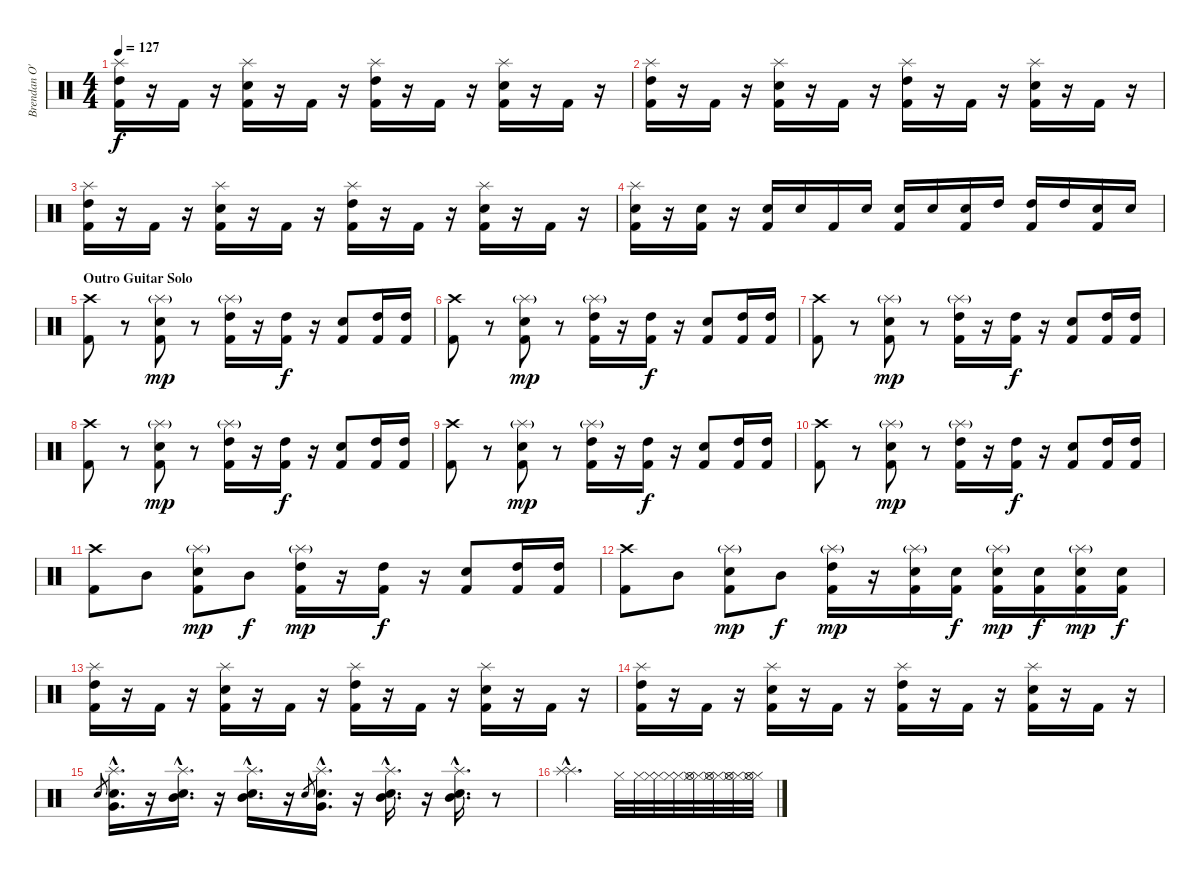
\track ("Brendan O'Neil" "Brendan O'") {instrument percussion}
\staff {score}
\articulation defaults
\ts (4 4)
\tempo 127
\clef neutral
\ks c
("Splash (hit)" "High Tom (hit)" "Kick (hit) 2").16{dy f} r.16 "Kick (hit) 2".16 r.16 ("Splash (hit)" "Snare (hit) 2" "Kick (hit) 2").16 r.16 "Kick (hit) 2".16 r.16 ("Splash (hit)" "High Tom (hit)" "Kick (hit) 2").16 r.16 "Kick (hit) 2".16 r.16 ("Splash (hit)" "Snare (hit) 2" "Kick (hit) 2").16 r.16 "Kick (hit) 2".16 r.16 |
("Splash (hit)" "High Tom (hit)" "Kick (hit) 2").16 r.16 "Kick (hit) 2".16 r.16 ("Splash (hit)" "Snare (hit) 2" "Kick (hit) 2").16 r.16 "Kick (hit) 2".16 r.16 ("Splash (hit)" "High Tom (hit)" "Kick (hit) 2").16 r.16 "Kick (hit) 2".16 r.16 ("Splash (hit)" "Snare (hit) 2" "Kick (hit) 2").16 r.16 "Kick (hit) 2".16 r.16 |
("Splash (hit)" "High Tom (hit)" "Kick (hit) 2").16 r.16 "Kick (hit) 2".16 r.16 ("Splash (hit)" "Snare (hit) 2" "Kick (hit) 2").16 r.16 "Kick (hit) 2".16 r.16 ("Splash (hit)" "High Tom (hit)" "Kick (hit) 2").16 r.16 "Kick (hit) 2".16 r.16 ("Splash (hit)" "Snare (hit) 2" "Kick (hit) 2").16 r.16 "Kick (hit) 2".16 r.16 |
("Splash (hit)" "Snare (hit) 2" "Kick (hit) 2").16 r.16 ("Snare (hit) 2" "Kick (hit) 2").16 r.16 ("Snare (hit) 2" "Kick (hit) 2").16 "Snare (hit) 2".16 "Kick (hit) 2".16 "Snare (hit) 2".16 ("Snare (hit) 2" "Kick (hit) 2").16 "Snare (hit) 2".16 ("Snare (hit) 2" "Kick (hit) 2").16 "High Tom (hit)".16 ("High Tom (hit)" "Kick (hit) 2").16 "High Tom (hit)".16 ("Snare (hit) 2" "Kick (hit) 2").16 "Snare (hit) 2".16 |
\section ("" "Outro Guitar Solo")
("Crash high (hit)" "Kick (hit) 2").8 r.8 ("Splash (hit)"{g} "Snare (hit) 2" "Kick (hit) 2").8{dy mp} r.8 ("Splash (hit)"{g} "High Tom (hit)" "Kick (hit) 2").16 r.16 ("High Tom (hit)" "Kick (hit) 2").16{dy f} r.16 ("Snare (hit) 2" "Kick (hit) 2").8 ("High Tom (hit)" "Kick (hit) 2").16 ("High Tom (hit)" "Kick (hit) 2").16 |
("Crash high (hit)" "Kick (hit) 2").8 r.8 ("Splash (hit)"{g} "Snare (hit) 2" "Kick (hit) 2").8{dy mp} r.8 ("Splash (hit)"{g} "High Tom (hit)" "Kick (hit) 2").16 r.16 ("High Tom (hit)" "Kick (hit) 2").16{dy f} r.16 ("Snare (hit) 2" "Kick (hit) 2").8 ("High Tom (hit)" "Kick (hit) 2").16 ("High Tom (hit)" "Kick (hit) 2").16 |
("Crash high (hit)" "Kick (hit) 2").8 r.8 ("Splash (hit)"{g} "Snare (hit) 2" "Kick (hit) 2").8{dy mp} r.8 ("Splash (hit)"{g} "High Tom (hit)" "Kick (hit) 2").16 r.16 ("High Tom (hit)" "Kick (hit) 2").16{dy f} r.16 ("Snare (hit) 2" "Kick (hit) 2").8 ("High Tom (hit)" "Kick (hit) 2").16 ("High Tom (hit)" "Kick (hit) 2").16 |
("Crash high (hit)" "Kick (hit) 2").8 r.8 ("Splash (hit)"{g} "Snare (hit) 2" "Kick (hit) 2").8{dy mp} r.8 ("Splash (hit)"{g} "High Tom (hit)" "Kick (hit) 2").16 r.16 ("High Tom (hit)" "Kick (hit) 2").16{dy f} r.16 ("Snare (hit) 2" "Kick (hit) 2").8 ("High Tom (hit)" "Kick (hit) 2").16 ("High Tom (hit)" "Kick (hit) 2").16 |
("Crash high (hit)" "Kick (hit) 2").8 r.8 ("Splash (hit)"{g} "Snare (hit) 2" "Kick (hit) 2").8{dy mp} r.8 ("Splash (hit)"{g} "High Tom (hit)" "Kick (hit) 2").16 r.16 ("High Tom (hit)" "Kick (hit) 2").16{dy f} r.16 ("Snare (hit) 2" "Kick (hit) 2").8 ("High Tom (hit)" "Kick (hit) 2").16 ("High Tom (hit)" "Kick (hit) 2").16 |
("Crash high (hit)" "Kick (hit) 2").8 r.8 ("Splash (hit)"{g} "Snare (hit) 2" "Kick (hit) 2").8{dy mp} r.8 ("Splash (hit)"{g} "High Tom (hit)" "Kick (hit) 2").16 r.16 ("High Tom (hit)" "Kick (hit) 2").16{dy f} r.16 ("Snare (hit) 2" "Kick (hit) 2").8 ("High Tom (hit)" "Kick (hit) 2").16 ("High Tom (hit)" "Kick (hit) 2").16 |
("Crash high (hit)" "Kick (hit) 2").8 "Mid Tom (hit)".8 ("Splash (hit)"{g} "Snare (hit) 2" "Kick (hit) 2").8{dy mp} "Mid Tom (hit)".8{dy f} ("Splash (hit)"{g} "High Tom (hit)" "Kick (hit) 2").16{dy mp} r.16 ("High Tom (hit)" "Kick (hit) 2").16{dy f} r.16 ("Snare (hit) 2" "Kick (hit) 2").8 ("High Tom (hit)" "Kick (hit) 2").16 ("High Tom (hit)" "Kick (hit) 2").16 |
("Crash high (hit)" "Kick (hit) 2").8 "Mid Tom (hit)".8 ("Splash (hit)"{g} "Snare (hit) 2" "Kick (hit) 2").8{dy mp} "Mid Tom (hit)".8{dy f} ("Splash (hit)"{g} "High Tom (hit)" "Kick (hit) 2").16{dy mp} r.16 ("Splash (hit)"{g} "Snare (hit) 2" "Kick (hit) 2").16 ("Snare (hit) 2" "Kick (hit) 2").16{dy f} ("Splash (hit)"{g} "Snare (hit) 2" "Kick (hit) 2").16{dy mp} ("Snare (hit) 2" "Kick (hit) 2").16{dy f} ("Splash (hit)"{g} "Snare (hit) 2" "Kick (hit) 2").16{dy mp} ("Snare (hit) 2" "Kick (hit) 2").16{dy f} |
("Splash (hit)" "High Tom (hit)" "Kick (hit) 2").16 r.16 "Kick (hit) 2".16 r.16 ("Splash (hit)" "Snare (hit) 2" "Kick (hit) 2").16 r.16 "Kick (hit) 2".16 r.16 ("Splash (hit)" "High Tom (hit)" "Kick (hit) 2").16 r.16 "Kick (hit) 2".16 r.16 ("Splash (hit)" "Snare (hit) 2" "Kick (hit) 2").16 r.16 "Kick (hit) 2".16 r.16 |
("Splash (hit)" "High Tom (hit)" "Kick (hit) 2").16 r.16 "Kick (hit) 2".16 r.16 ("Splash (hit)" "Snare (hit) 2" "Kick (hit) 2").16 r.16 "Kick (hit) 2".16 r.16 ("Splash (hit)" "High Tom (hit)" "Kick (hit) 2").16 r.16 "Kick (hit) 2".16 r.16 ("Splash (hit)" "Snare (hit) 2" "Kick (hit) 2").16 r.16 "Kick (hit) 2".16 r.16 |
"Snare (hit) 2".8{gr} ("Splash (hit)"{hac} "Electric Snare (hit)"{hac} "Very Low Tom (hit)"{hac}).16{d} r.16 ("Splash (hit)"{hac} "Snare (hit) 2"{hac} "Mid Tom (hit)"{hac}).16{d} r.16 ("Splash (hit)"{hac} "Snare (hit) 2"{hac} "Mid Tom (hit)"{hac}).16{d} r.16 "Snare (hit) 2".8{gr} ("Splash (hit)"{hac} "Electric Snare (hit)"{hac} "Very Low Tom (hit)"{hac}).16{d} r.16 ("Splash (hit)"{hac} "Snare (hit) 2"{hac} "Mid Tom (hit)"{hac}).16{d} r.16 ("Splash (hit)"{hac} "Snare (hit) 2"{hac} "Mid Tom (hit)"{hac}).16{d} r.8 |
("Splash (hit)"{hac} "Splash (hit)"{hac}).2{d} "Hi-Hat (closed)".32 "Hi-Hat (closed)".32 ("Hi-Hat (closed)" "Hi-Hat (closed)").32 ("Hi-Hat (closed)" "Hi-Hat (closed)").32 ("Hi-Hat (closed)" "Hi-Hat (closed)" "Hi-Hat (open)").32 ("Hi-Hat (closed)" "Hi-Hat (closed)" "Hi-Hat (open)").32 ("Hi-Hat (closed)" "Hi-Hat (closed)" "Hi-Hat (open)").32 ("Hi-Hat (closed)" "Hi-Hat (closed)" "Hi-Hat (open)").32
